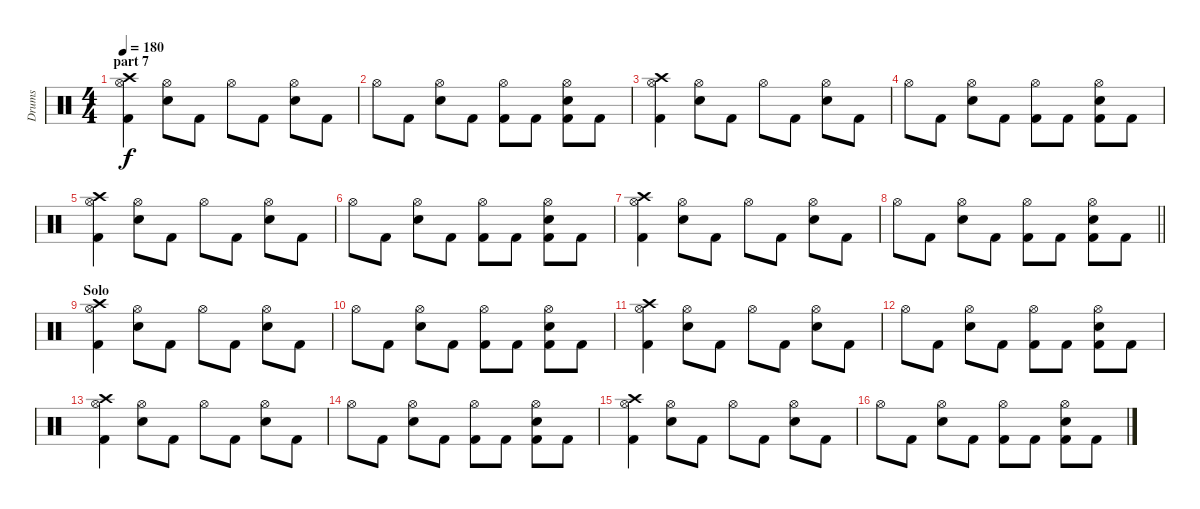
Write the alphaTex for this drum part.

\track ("Drums" "Drums") {instrument percussion}
\staff {score}
\articulation defaults
\ts (4 4)
\section ("" "part 7")
\tempo 180
\clef neutral
\ks c
("Crash high (hit)" "Hi-Hat (open)" "Kick (hit) 2").4{dy f} ("Hi-Hat (open)" "Electric Snare (hit)").8 "Kick (hit) 2".8 "Hi-Hat (open)".8 "Kick (hit) 2".8 ("Hi-Hat (open)" "Electric Snare (hit)").8 "Kick (hit) 2".8 |
"Hi-Hat (open)".8 "Kick (hit) 2".8 ("Hi-Hat (open)" "Electric Snare (hit)").8 "Kick (hit) 2".8 ("Hi-Hat (open)" "Kick (hit) 2").8 "Kick (hit) 2".8 ("Hi-Hat (open)" "Electric Snare (hit)" "Kick (hit) 2").8 "Kick (hit) 2".8 |
("Crash high (hit)" "Hi-Hat (open)" "Kick (hit) 2").4 ("Hi-Hat (open)" "Electric Snare (hit)").8 "Kick (hit) 2".8 "Hi-Hat (open)".8 "Kick (hit) 2".8 ("Hi-Hat (open)" "Electric Snare (hit)").8 "Kick (hit) 2".8 |
"Hi-Hat (open)".8 "Kick (hit) 2".8 ("Hi-Hat (open)" "Electric Snare (hit)").8 "Kick (hit) 2".8 ("Hi-Hat (open)" "Kick (hit) 2").8 "Kick (hit) 2".8 ("Hi-Hat (open)" "Electric Snare (hit)" "Kick (hit) 2").8 "Kick (hit) 2".8 |
("Crash high (hit)" "Hi-Hat (open)" "Kick (hit) 2").4 ("Hi-Hat (open)" "Electric Snare (hit)").8 "Kick (hit) 2".8 "Hi-Hat (open)".8 "Kick (hit) 2".8 ("Hi-Hat (open)" "Electric Snare (hit)").8 "Kick (hit) 2".8 |
"Hi-Hat (open)".8 "Kick (hit) 2".8 ("Hi-Hat (open)" "Electric Snare (hit)").8 "Kick (hit) 2".8 ("Hi-Hat (open)" "Kick (hit) 2").8 "Kick (hit) 2".8 ("Hi-Hat (open)" "Electric Snare (hit)" "Kick (hit) 2").8 "Kick (hit) 2".8 |
("Crash high (hit)" "Hi-Hat (open)" "Kick (hit) 2").4 ("Hi-Hat (open)" "Electric Snare (hit)").8 "Kick (hit) 2".8 "Hi-Hat (open)".8 "Kick (hit) 2".8 ("Hi-Hat (open)" "Electric Snare (hit)").8 "Kick (hit) 2".8 |
\barLineRight lightlight "Hi-Hat (open)".8 "Kick (hit) 2".8
("Hi-Hat (open)" "Electric Snare (hit)").8 "Kick (hit) 2".8 ("Hi-Hat (open)" "Kick (hit) 2").8 "Kick (hit) 2".8 ("Hi-Hat (open)" "Electric Snare (hit)" "Kick (hit) 2").8 "Kick (hit) 2".8 |
\section ("" "Solo")
("Crash high (hit)" "Hi-Hat (open)" "Kick (hit) 2").4 ("Hi-Hat (open)" "Electric Snare (hit)").8 "Kick (hit) 2".8 "Hi-Hat (open)".8 "Kick (hit) 2".8 ("Hi-Hat (open)" "Electric Snare (hit)").8 "Kick (hit) 2".8 |
"Hi-Hat (open)".8 "Kick (hit) 2".8 ("Hi-Hat (open)" "Electric Snare (hit)").8 "Kick (hit) 2".8 ("Hi-Hat (open)" "Kick (hit) 2").8 "Kick (hit) 2".8 ("Hi-Hat (open)" "Electric Snare (hit)" "Kick (hit) 2").8 "Kick (hit) 2".8 |
("Crash high (hit)" "Hi-Hat (open)" "Kick (hit) 2").4 ("Hi-Hat (open)" "Electric Snare (hit)").8 "Kick (hit) 2".8 "Hi-Hat (open)".8 "Kick (hit) 2".8 ("Hi-Hat (open)" "Electric Snare (hit)").8 "Kick (hit) 2".8 |
"Hi-Hat (open)".8 "Kick (hit) 2".8 ("Hi-Hat (open)" "Electric Snare (hit)").8 "Kick (hit) 2".8 ("Hi-Hat (open)" "Kick (hit) 2").8 "Kick (hit) 2".8 ("Hi-Hat (open)" "Electric Snare (hit)" "Kick (hit) 2").8 "Kick (hit) 2".8 |
("Crash high (hit)" "Hi-Hat (open)" "Kick (hit) 2").4 ("Hi-Hat (open)" "Electric Snare (hit)").8 "Kick (hit) 2".8 "Hi-Hat (open)".8 "Kick (hit) 2".8 ("Hi-Hat (open)" "Electric Snare (hit)").8 "Kick (hit) 2".8 |
"Hi-Hat (open)".8 "Kick (hit) 2".8 ("Hi-Hat (open)" "Electric Snare (hit)").8 "Kick (hit) 2".8 ("Hi-Hat (open)" "Kick (hit) 2").8 "Kick (hit) 2".8 ("Hi-Hat (open)" "Electric Snare (hit)" "Kick (hit) 2").8 "Kick (hit) 2".8 |
("Crash high (hit)" "Hi-Hat (open)" "Kick (hit) 2").4 ("Hi-Hat (open)" "Electric Snare (hit)").8 "Kick (hit) 2".8 "Hi-Hat (open)".8 "Kick (hit) 2".8 ("Hi-Hat (open)" "Electric Snare (hit)").8 "Kick (hit) 2".8 |
"Hi-Hat (open)".8 "Kick (hit) 2".8 ("Hi-Hat (open)" "Electric Snare (hit)").8 "Kick (hit) 2".8 ("Hi-Hat (open)" "Kick (hit) 2").8 "Kick (hit) 2".8 ("Hi-Hat (open)" "Electric Snare (hit)" "Kick (hit) 2").8 "Kick (hit) 2".8
